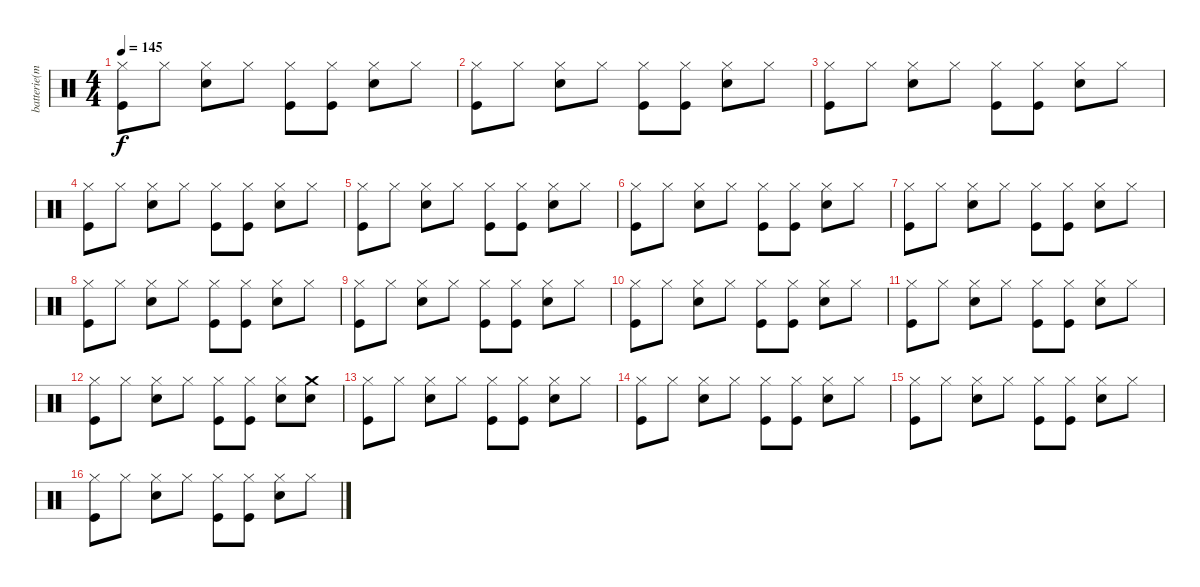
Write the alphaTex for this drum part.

\track ("batterie(micky)" "batterie(m") {instrument percussion}
\staff {score}
\articulation defaults
\ts (4 4)
\tempo 145
\clef neutral
\ks c
("Hi-Hat (closed)" "Kick (hit)").8{dy f} "Hi-Hat (closed)".8 ("Hi-Hat (closed)" "Snare (hit) 2").8 "Hi-Hat (closed)".8 ("Hi-Hat (closed)" "Kick (hit)").8 ("Hi-Hat (closed)" "Kick (hit)").8 ("Hi-Hat (closed)" "Snare (hit) 2").8 "Hi-Hat (closed)".8 |
("Hi-Hat (closed)" "Kick (hit)").8 "Hi-Hat (closed)".8 ("Hi-Hat (closed)" "Snare (hit) 2").8 "Hi-Hat (closed)".8 ("Hi-Hat (closed)" "Kick (hit)").8 ("Hi-Hat (closed)" "Kick (hit)").8 ("Hi-Hat (closed)" "Snare (hit) 2").8 "Hi-Hat (closed)".8 |
("Hi-Hat (closed)" "Kick (hit)").8 "Hi-Hat (closed)".8 ("Hi-Hat (closed)" "Snare (hit) 2").8 "Hi-Hat (closed)".8 ("Hi-Hat (closed)" "Kick (hit)").8 ("Hi-Hat (closed)" "Kick (hit)").8 ("Hi-Hat (closed)" "Snare (hit) 2").8 "Hi-Hat (closed)".8 |
("Hi-Hat (closed)" "Kick (hit)").8 "Hi-Hat (closed)".8 ("Hi-Hat (closed)" "Snare (hit) 2").8 "Hi-Hat (closed)".8 ("Hi-Hat (closed)" "Kick (hit)").8 ("Hi-Hat (closed)" "Kick (hit)").8 ("Hi-Hat (closed)" "Snare (hit) 2").8 "Hi-Hat (closed)".8 |
("Hi-Hat (closed)" "Kick (hit)").8 "Hi-Hat (closed)".8 ("Hi-Hat (closed)" "Snare (hit) 2").8 "Hi-Hat (closed)".8 ("Hi-Hat (closed)" "Kick (hit)").8 ("Hi-Hat (closed)" "Kick (hit)").8 ("Hi-Hat (closed)" "Snare (hit) 2").8 "Hi-Hat (closed)".8 |
("Hi-Hat (closed)" "Kick (hit)").8 "Hi-Hat (closed)".8 ("Hi-Hat (closed)" "Snare (hit) 2").8 "Hi-Hat (closed)".8 ("Hi-Hat (closed)" "Kick (hit)").8 ("Hi-Hat (closed)" "Kick (hit)").8 ("Hi-Hat (closed)" "Snare (hit) 2").8 "Hi-Hat (closed)".8 |
("Hi-Hat (closed)" "Kick (hit)").8 "Hi-Hat (closed)".8 ("Hi-Hat (closed)" "Snare (hit) 2").8 "Hi-Hat (closed)".8 ("Hi-Hat (closed)" "Kick (hit)").8 ("Hi-Hat (closed)" "Kick (hit)").8 ("Hi-Hat (closed)" "Snare (hit) 2").8 "Hi-Hat (closed)".8 |
("Hi-Hat (closed)" "Kick (hit)").8 "Hi-Hat (closed)".8 ("Hi-Hat (closed)" "Snare (hit) 2").8 "Hi-Hat (closed)".8 ("Hi-Hat (closed)" "Kick (hit)").8 ("Hi-Hat (closed)" "Kick (hit)").8 ("Hi-Hat (closed)" "Snare (hit) 2").8 "Hi-Hat (closed)".8 |
("Hi-Hat (closed)" "Kick (hit)").8 "Hi-Hat (closed)".8 ("Hi-Hat (closed)" "Snare (hit) 2").8 "Hi-Hat (closed)".8 ("Hi-Hat (closed)" "Kick (hit)").8 ("Hi-Hat (closed)" "Kick (hit)").8 ("Hi-Hat (closed)" "Snare (hit) 2").8 "Hi-Hat (closed)".8 |
("Hi-Hat (closed)" "Kick (hit)").8 "Hi-Hat (closed)".8 ("Hi-Hat (closed)" "Snare (hit) 2").8 "Hi-Hat (closed)".8 ("Hi-Hat (closed)" "Kick (hit)").8 ("Hi-Hat (closed)" "Kick (hit)").8 ("Hi-Hat (closed)" "Snare (hit) 2").8 "Hi-Hat (closed)".8 |
("Hi-Hat (closed)" "Kick (hit)").8 "Hi-Hat (closed)".8 ("Hi-Hat (closed)" "Snare (hit) 2").8 "Hi-Hat (closed)".8 ("Hi-Hat (closed)" "Kick (hit)").8 ("Hi-Hat (closed)" "Kick (hit)").8 ("Hi-Hat (closed)" "Snare (hit) 2").8 "Hi-Hat (closed)".8 |
("Hi-Hat (closed)" "Kick (hit)").8 "Hi-Hat (closed)".8 ("Hi-Hat (closed)" "Snare (hit) 2").8 "Hi-Hat (closed)".8 ("Hi-Hat (closed)" "Kick (hit)").8 ("Hi-Hat (closed)" "Kick (hit)").8 ("Hi-Hat (closed)" "Snare (hit) 2").8 ("Crash medium (hit)" "Snare (hit) 2").8 |
("Hi-Hat (closed)" "Kick (hit)").8 "Hi-Hat (closed)".8 ("Hi-Hat (closed)" "Snare (hit) 2").8 "Hi-Hat (closed)".8 ("Hi-Hat (closed)" "Kick (hit)").8 ("Hi-Hat (closed)" "Kick (hit)").8 ("Hi-Hat (closed)" "Snare (hit) 2").8 "Hi-Hat (closed)".8 |
("Hi-Hat (closed)" "Kick (hit)").8 "Hi-Hat (closed)".8 ("Hi-Hat (closed)" "Snare (hit) 2").8 "Hi-Hat (closed)".8 ("Hi-Hat (closed)" "Kick (hit)").8 ("Hi-Hat (closed)" "Kick (hit)").8 ("Hi-Hat (closed)" "Snare (hit) 2").8 "Hi-Hat (closed)".8 |
("Hi-Hat (closed)" "Kick (hit)").8 "Hi-Hat (closed)".8 ("Hi-Hat (closed)" "Snare (hit) 2").8 "Hi-Hat (closed)".8 ("Hi-Hat (closed)" "Kick (hit)").8 ("Hi-Hat (closed)" "Kick (hit)").8 ("Hi-Hat (closed)" "Snare (hit) 2").8 "Hi-Hat (closed)".8 |
("Hi-Hat (closed)" "Kick (hit)").8 "Hi-Hat (closed)".8 ("Hi-Hat (closed)" "Snare (hit) 2").8 "Hi-Hat (closed)".8 ("Hi-Hat (closed)" "Kick (hit)").8 ("Hi-Hat (closed)" "Kick (hit)").8 ("Hi-Hat (closed)" "Snare (hit) 2").8 "Hi-Hat (closed)".8
